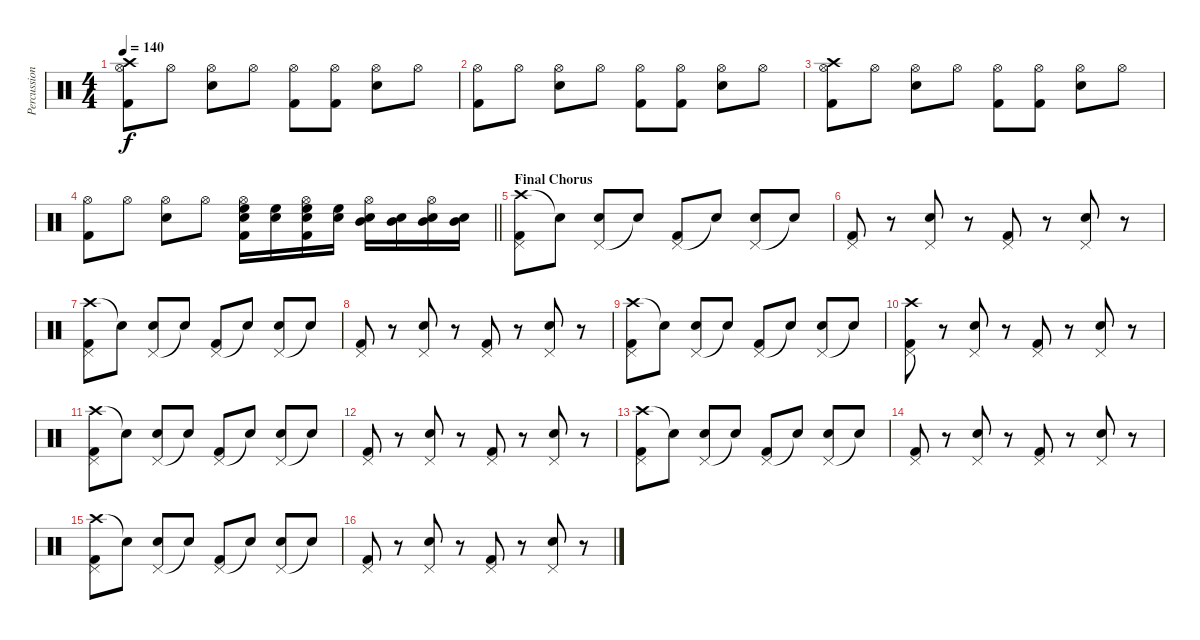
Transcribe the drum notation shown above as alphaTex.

\track ("Percussion" "Percussion") {instrument percussion}
\staff {score}
\articulation defaults
\ts (4 4)
\tempo 140
\clef neutral
\ks c
("Crash high (hit)" "Hi-Hat (open)" "Kick (hit) 2").8{dy f} "Hi-Hat (open)".8 ("Hi-Hat (open)" "Electric Snare (hit)").8 "Hi-Hat (open)".8 ("Hi-Hat (open)" "Kick (hit) 2").8 ("Hi-Hat (open)" "Kick (hit) 2").8 ("Hi-Hat (open)" "Electric Snare (hit)").8 "Hi-Hat (open)".8 |
("Hi-Hat (open)" "Kick (hit) 2").8 "Hi-Hat (open)".8 ("Hi-Hat (open)" "Electric Snare (hit)").8 "Hi-Hat (open)".8 ("Hi-Hat (open)" "Kick (hit) 2").8 ("Hi-Hat (open)" "Kick (hit) 2").8 ("Hi-Hat (open)" "Electric Snare (hit)").8 "Hi-Hat (open)".8 |
("Crash high (hit)" "Hi-Hat (open)" "Kick (hit) 2").8 "Hi-Hat (open)".8 ("Hi-Hat (open)" "Electric Snare (hit)").8 "Hi-Hat (open)".8 ("Hi-Hat (open)" "Kick (hit) 2").8 ("Hi-Hat (open)" "Kick (hit) 2").8 ("Hi-Hat (open)" "Electric Snare (hit)").8 "Hi-Hat (open)".8 |
\barLineRight lightlight
("Hi-Hat (open)" "Kick (hit) 2").8 "Hi-Hat (open)".8 ("Hi-Hat (open)" "Electric Snare (hit)").8 "Hi-Hat (open)".8 ("High Floor Tom (hit)" "Hi-Hat (open)" "Electric Snare (hit)" "Kick (hit) 2").16 ("High Floor Tom (hit)" "Electric Snare (hit)").16 ("High Floor Tom (hit)" "Hi-Hat (open)" "Electric Snare (hit)" "Kick (hit) 2").16 ("High Floor Tom (hit)" "Electric Snare (hit)").16 ("Mid Tom (hit)" "Hi-Hat (open)" "Electric Snare (hit)").16 ("Mid Tom (hit)" "Electric Snare (hit)").16 ("Mid Tom (hit)" "Hi-Hat (open)" "Electric Snare (hit)").16 ("Mid Tom (hit)" "Electric Snare (hit)").16 |
\section ("" "Final Chorus")
("Crash high (hit)" "Pedal Hi-Hat (hit)" "Kick (hit) 2").8 "Snare (hit)"{t}.8 ("Pedal Hi-Hat (hit)" "Electric Snare (hit)").8 "Snare (hit)"{t}.8 ("Pedal Hi-Hat (hit)" "Kick (hit) 2").8 "Snare (hit)"{t}.8 ("Pedal Hi-Hat (hit)" "Electric Snare (hit)").8 "Snare (hit)"{t}.8 |
("Pedal Hi-Hat (hit)" "Kick (hit) 2").8 r.8 ("Pedal Hi-Hat (hit)" "Electric Snare (hit)").8 r.8 ("Pedal Hi-Hat (hit)" "Kick (hit) 2").8 r.8 ("Pedal Hi-Hat (hit)" "Electric Snare (hit)").8 r.8 |
("Crash high (hit)" "Pedal Hi-Hat (hit)" "Kick (hit) 2").8 "Snare (hit)"{t}.8 ("Pedal Hi-Hat (hit)" "Electric Snare (hit)").8 "Snare (hit)"{t}.8 ("Pedal Hi-Hat (hit)" "Kick (hit) 2").8 "Snare (hit)"{t}.8 ("Pedal Hi-Hat (hit)" "Electric Snare (hit)").8 "Snare (hit)"{t}.8 |
("Pedal Hi-Hat (hit)" "Kick (hit) 2").8 r.8 ("Pedal Hi-Hat (hit)" "Electric Snare (hit)").8 r.8 ("Pedal Hi-Hat (hit)" "Kick (hit) 2").8 r.8 ("Pedal Hi-Hat (hit)" "Electric Snare (hit)").8 r.8 |
("Crash high (hit)" "Pedal Hi-Hat (hit)" "Kick (hit) 2").8 "Snare (hit)"{t}.8 ("Pedal Hi-Hat (hit)" "Electric Snare (hit)").8 "Snare (hit)"{t}.8 ("Pedal Hi-Hat (hit)" "Kick (hit) 2").8 "Snare (hit)"{t}.8 ("Pedal Hi-Hat (hit)" "Electric Snare (hit)").8 "Snare (hit)"{t}.8 |
("Crash high (hit)" "Pedal Hi-Hat (hit)" "Kick (hit) 2").8 r.8 ("Pedal Hi-Hat (hit)" "Electric Snare (hit)").8 r.8 ("Pedal Hi-Hat (hit)" "Kick (hit) 2").8 r.8 ("Pedal Hi-Hat (hit)" "Electric Snare (hit)").8 r.8 |
("Crash high (hit)" "Pedal Hi-Hat (hit)" "Kick (hit) 2").8 "Snare (hit)"{t}.8 ("Pedal Hi-Hat (hit)" "Electric Snare (hit)").8 "Snare (hit)"{t}.8 ("Pedal Hi-Hat (hit)" "Kick (hit) 2").8 "Snare (hit)"{t}.8 ("Pedal Hi-Hat (hit)" "Electric Snare (hit)").8 "Snare (hit)"{t}.8 |
("Pedal Hi-Hat (hit)" "Kick (hit) 2").8 r.8 ("Pedal Hi-Hat (hit)" "Electric Snare (hit)").8 r.8 ("Pedal Hi-Hat (hit)" "Kick (hit) 2").8 r.8 ("Pedal Hi-Hat (hit)" "Electric Snare (hit)").8 r.8 |
("Crash high (hit)" "Pedal Hi-Hat (hit)" "Kick (hit) 2").8 "Snare (hit)"{t}.8 ("Pedal Hi-Hat (hit)" "Electric Snare (hit)").8 "Snare (hit)"{t}.8 ("Pedal Hi-Hat (hit)" "Kick (hit) 2").8 "Snare (hit)"{t}.8 ("Pedal Hi-Hat (hit)" "Electric Snare (hit)").8 "Snare (hit)"{t}.8 |
("Pedal Hi-Hat (hit)" "Kick (hit) 2").8 r.8 ("Pedal Hi-Hat (hit)" "Electric Snare (hit)").8 r.8 ("Pedal Hi-Hat (hit)" "Kick (hit) 2").8 r.8 ("Pedal Hi-Hat (hit)" "Electric Snare (hit)").8 r.8 |
("Crash high (hit)" "Pedal Hi-Hat (hit)" "Kick (hit) 2").8 "Snare (hit)"{t}.8 ("Pedal Hi-Hat (hit)" "Electric Snare (hit)").8 "Snare (hit)"{t}.8 ("Pedal Hi-Hat (hit)" "Kick (hit) 2").8 "Snare (hit)"{t}.8 ("Pedal Hi-Hat (hit)" "Electric Snare (hit)").8 "Snare (hit)"{t}.8 |
("Pedal Hi-Hat (hit)" "Kick (hit) 2").8 r.8 ("Pedal Hi-Hat (hit)" "Electric Snare (hit)").8 r.8 ("Pedal Hi-Hat (hit)" "Kick (hit) 2").8 r.8 ("Pedal Hi-Hat (hit)" "Electric Snare (hit)").8 r.8
